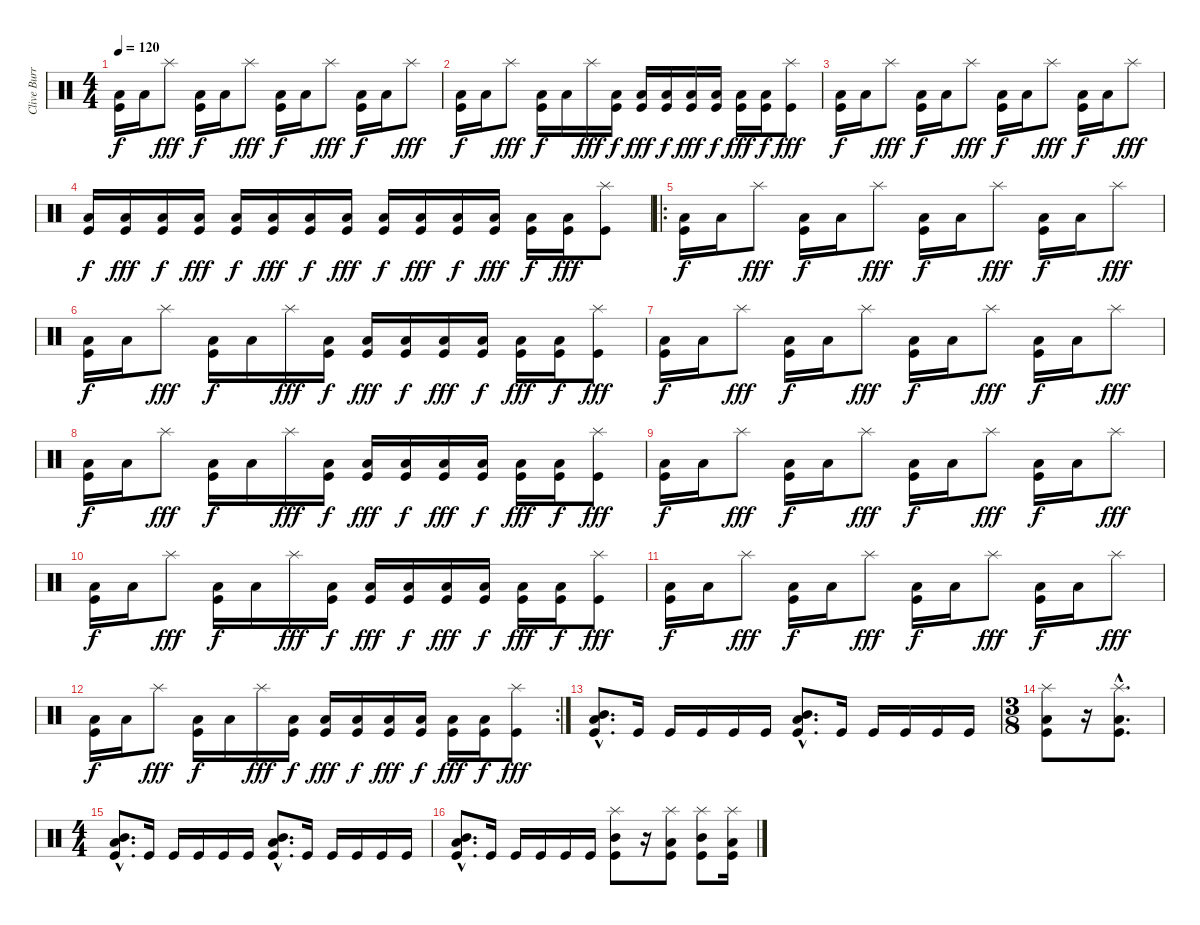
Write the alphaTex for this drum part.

\track ("Clive Burr" "Clive Burr") {instrument percussion}
\staff {score}
\articulation defaults
\ts (4 4)
\tempo 120
\clef neutral
\ks c
("Kick (hit)" "Low Floor Tom (hit)").16{dy f} "Low Floor Tom (hit)".16 "Splash (hit)".8{dy fff} ("Kick (hit)" "Low Floor Tom (hit)").16{dy f} "Low Floor Tom (hit)".16 "Splash (hit)".8{dy fff} ("Kick (hit)" "Low Floor Tom (hit)").16{dy f} "Low Floor Tom (hit)".16 "Splash (hit)".8{dy fff} ("Kick (hit)" "Low Floor Tom (hit)").16{dy f} "Low Floor Tom (hit)".16 "Splash (hit)".8{dy fff} |
("Kick (hit)" "Low Floor Tom (hit)").16{dy f} "Low Floor Tom (hit)".16 "Splash (hit)".8{dy fff} ("Kick (hit)" "Low Floor Tom (hit)").16{dy f} "Low Floor Tom (hit)".16 "Splash (hit)".16{dy fff} ("Kick (hit)" "Low Floor Tom (hit)").16{dy f} ("Kick (hit)" "Low Floor Tom (hit)").16{dy fff} ("Kick (hit)" "Low Floor Tom (hit)").16{dy f} ("Kick (hit)" "Low Floor Tom (hit)").16{dy fff} ("Kick (hit)" "Low Floor Tom (hit)").16{dy f} ("Kick (hit)" "Low Floor Tom (hit)").16{dy fff} ("Kick (hit)" "Low Floor Tom (hit)").16{dy f} ("Kick (hit)" "Splash (hit)").8{dy fff} |
("Kick (hit)" "Low Floor Tom (hit)").16{dy f} "Low Floor Tom (hit)".16 "Splash (hit)".8{dy fff} ("Kick (hit)" "Low Floor Tom (hit)").16{dy f} "Low Floor Tom (hit)".16 "Splash (hit)".8{dy fff} ("Kick (hit)" "Low Floor Tom (hit)").16{dy f} "Low Floor Tom (hit)".16 "Splash (hit)".8{dy fff} ("Kick (hit)" "Low Floor Tom (hit)").16{dy f} "Low Floor Tom (hit)".16 "Splash (hit)".8{dy fff} |
("Kick (hit)" "Low Floor Tom (hit)").16{dy f} ("Kick (hit)" "Low Floor Tom (hit)").16{dy fff} ("Kick (hit)" "Low Floor Tom (hit)").16{dy f} ("Kick (hit)" "Low Floor Tom (hit)").16{dy fff} ("Kick (hit)" "Low Floor Tom (hit)").16{dy f} ("Kick (hit)" "Low Floor Tom (hit)").16{dy fff} ("Kick (hit)" "Low Floor Tom (hit)").16{dy f} ("Kick (hit)" "Low Floor Tom (hit)").16{dy fff} ("Kick (hit)" "Low Floor Tom (hit)").16{dy f} ("Kick (hit)" "Low Floor Tom (hit)").16{dy fff} ("Kick (hit)" "Low Floor Tom (hit)").16{dy f} ("Kick (hit)" "Low Floor Tom (hit)").16{dy fff} ("Kick (hit)" "Low Floor Tom (hit)").16{dy f} ("Kick (hit)" "Low Floor Tom (hit)").16{dy fff} ("Kick (hit)" "Splash (hit)").8 |
\ro
("Kick (hit)" "Low Floor Tom (hit)").16{dy f} "Low Floor Tom (hit)".16 "Splash (hit)".8{dy fff} ("Kick (hit)" "Low Floor Tom (hit)").16{dy f} "Low Floor Tom (hit)".16 "Splash (hit)".8{dy fff} ("Kick (hit)" "Low Floor Tom (hit)").16{dy f} "Low Floor Tom (hit)".16 "Splash (hit)".8{dy fff} ("Kick (hit)" "Low Floor Tom (hit)").16{dy f} "Low Floor Tom (hit)".16 "Splash (hit)".8{dy fff} |
("Kick (hit)" "Low Floor Tom (hit)").16{dy f} "Low Floor Tom (hit)".16 "Splash (hit)".8{dy fff} ("Kick (hit)" "Low Floor Tom (hit)").16{dy f} "Low Floor Tom (hit)".16 "Splash (hit)".16{dy fff} ("Kick (hit)" "Low Floor Tom (hit)").16{dy f} ("Kick (hit)" "Low Floor Tom (hit)").16{dy fff} ("Kick (hit)" "Low Floor Tom (hit)").16{dy f} ("Kick (hit)" "Low Floor Tom (hit)").16{dy fff} ("Kick (hit)" "Low Floor Tom (hit)").16{dy f} ("Kick (hit)" "Low Floor Tom (hit)").16{dy fff} ("Kick (hit)" "Low Floor Tom (hit)").16{dy f} ("Kick (hit)" "Splash (hit)").8{dy fff} |
("Kick (hit)" "Low Floor Tom (hit)").16{dy f} "Low Floor Tom (hit)".16 "Splash (hit)".8{dy fff} ("Kick (hit)" "Low Floor Tom (hit)").16{dy f} "Low Floor Tom (hit)".16 "Splash (hit)".8{dy fff} ("Kick (hit)" "Low Floor Tom (hit)").16{dy f} "Low Floor Tom (hit)".16 "Splash (hit)".8{dy fff} ("Kick (hit)" "Low Floor Tom (hit)").16{dy f} "Low Floor Tom (hit)".16 "Splash (hit)".8{dy fff} |
("Kick (hit)" "Low Floor Tom (hit)").16{dy f} "Low Floor Tom (hit)".16 "Splash (hit)".8{dy fff} ("Kick (hit)" "Low Floor Tom (hit)").16{dy f} "Low Floor Tom (hit)".16 "Splash (hit)".16{dy fff} ("Kick (hit)" "Low Floor Tom (hit)").16{dy f} ("Kick (hit)" "Low Floor Tom (hit)").16{dy fff} ("Kick (hit)" "Low Floor Tom (hit)").16{dy f} ("Kick (hit)" "Low Floor Tom (hit)").16{dy fff} ("Kick (hit)" "Low Floor Tom (hit)").16{dy f} ("Kick (hit)" "Low Floor Tom (hit)").16{dy fff} ("Kick (hit)" "Low Floor Tom (hit)").16{dy f} ("Kick (hit)" "Splash (hit)").8{dy fff} |
("Kick (hit)" "Low Floor Tom (hit)").16{dy f} "Low Floor Tom (hit)".16 "Splash (hit)".8{dy fff} ("Kick (hit)" "Low Floor Tom (hit)").16{dy f} "Low Floor Tom (hit)".16 "Splash (hit)".8{dy fff} ("Kick (hit)" "Low Floor Tom (hit)").16{dy f} "Low Floor Tom (hit)".16 "Splash (hit)".8{dy fff} ("Kick (hit)" "Low Floor Tom (hit)").16{dy f} "Low Floor Tom (hit)".16 "Splash (hit)".8{dy fff} |
("Kick (hit)" "Low Floor Tom (hit)").16{dy f} "Low Floor Tom (hit)".16 "Splash (hit)".8{dy fff} ("Kick (hit)" "Low Floor Tom (hit)").16{dy f} "Low Floor Tom (hit)".16 "Splash (hit)".16{dy fff} ("Kick (hit)" "Low Floor Tom (hit)").16{dy f} ("Kick (hit)" "Low Floor Tom (hit)").16{dy fff} ("Kick (hit)" "Low Floor Tom (hit)").16{dy f} ("Kick (hit)" "Low Floor Tom (hit)").16{dy fff} ("Kick (hit)" "Low Floor Tom (hit)").16{dy f} ("Kick (hit)" "Low Floor Tom (hit)").16{dy fff} ("Kick (hit)" "Low Floor Tom (hit)").16{dy f} ("Kick (hit)" "Splash (hit)").8{dy fff} |
("Kick (hit)" "Low Floor Tom (hit)").16{dy f} "Low Floor Tom (hit)".16 "Splash (hit)".8{dy fff} ("Kick (hit)" "Low Floor Tom (hit)").16{dy f} "Low Floor Tom (hit)".16 "Splash (hit)".8{dy fff} ("Kick (hit)" "Low Floor Tom (hit)").16{dy f} "Low Floor Tom (hit)".16 "Splash (hit)".8{dy fff} ("Kick (hit)" "Low Floor Tom (hit)").16{dy f} "Low Floor Tom (hit)".16 "Splash (hit)".8{dy fff} |
\rc 2
("Kick (hit)" "Low Floor Tom (hit)").16{dy f} "Low Floor Tom (hit)".16 "Splash (hit)".8{dy fff} ("Kick (hit)" "Low Floor Tom (hit)").16{dy f} "Low Floor Tom (hit)".16 "Splash (hit)".16{dy fff} ("Kick (hit)" "Low Floor Tom (hit)").16{dy f} ("Kick (hit)" "Low Floor Tom (hit)").16{dy fff} ("Kick (hit)" "Low Floor Tom (hit)").16{dy f} ("Kick (hit)" "Low Floor Tom (hit)").16{dy fff} ("Kick (hit)" "Low Floor Tom (hit)").16{dy f} ("Kick (hit)" "Low Floor Tom (hit)").16{dy fff} ("Kick (hit)" "Low Floor Tom (hit)").16{dy f} ("Kick (hit)" "Splash (hit)").8{dy fff} |
("Kick (hit)"{hac} "Low Floor Tom (hit)"{hac} "Mid Tom (hit)"{hac}).8{d} "Kick (hit)".16 "Kick (hit)".16 "Kick (hit)".16 "Kick (hit)".16 "Kick (hit)".16 ("Kick (hit)"{hac} "Low Floor Tom (hit)"{hac} "Mid Tom (hit)"{hac}).8{d} "Kick (hit)".16 "Kick (hit)".16 "Kick (hit)".16 "Kick (hit)".16 "Kick (hit)".16 |
\ts (3 8)
("Kick (hit)" "Low Floor Tom (hit)" "Splash (hit)").8 r.16 ("Kick (hit)"{hac} "Low Floor Tom (hit)"{hac} "Splash (hit)"{hac}).8{d} |
\ts (4 4)
("Kick (hit)"{hac} "Low Floor Tom (hit)"{hac} "Mid Tom (hit)"{hac}).8{d} "Kick (hit)".16 "Kick (hit)".16 "Kick (hit)".16 "Kick (hit)".16 "Kick (hit)".16 ("Kick (hit)"{hac} "Low Floor Tom (hit)"{hac} "Mid Tom (hit)"{hac}).8{d} "Kick (hit)".16 "Kick (hit)".16 "Kick (hit)".16 "Kick (hit)".16 "Kick (hit)".16 |
("Kick (hit)"{hac} "Low Floor Tom (hit)"{hac} "Mid Tom (hit)"{hac}).8{d} "Kick (hit)".16 "Kick (hit)".16 "Kick (hit)".16 "Kick (hit)".16 "Kick (hit)".16 ("Kick (hit)" "Mid Tom (hit)" "Splash (hit)").8 r.16 ("Kick (hit)" "Low Floor Tom (hit)" "Splash (hit)").8 ("Kick (hit)" "Mid Tom (hit)" "Splash (hit)").8 ("Kick (hit)" "Low Floor Tom (hit)" "Splash (hit)").16
